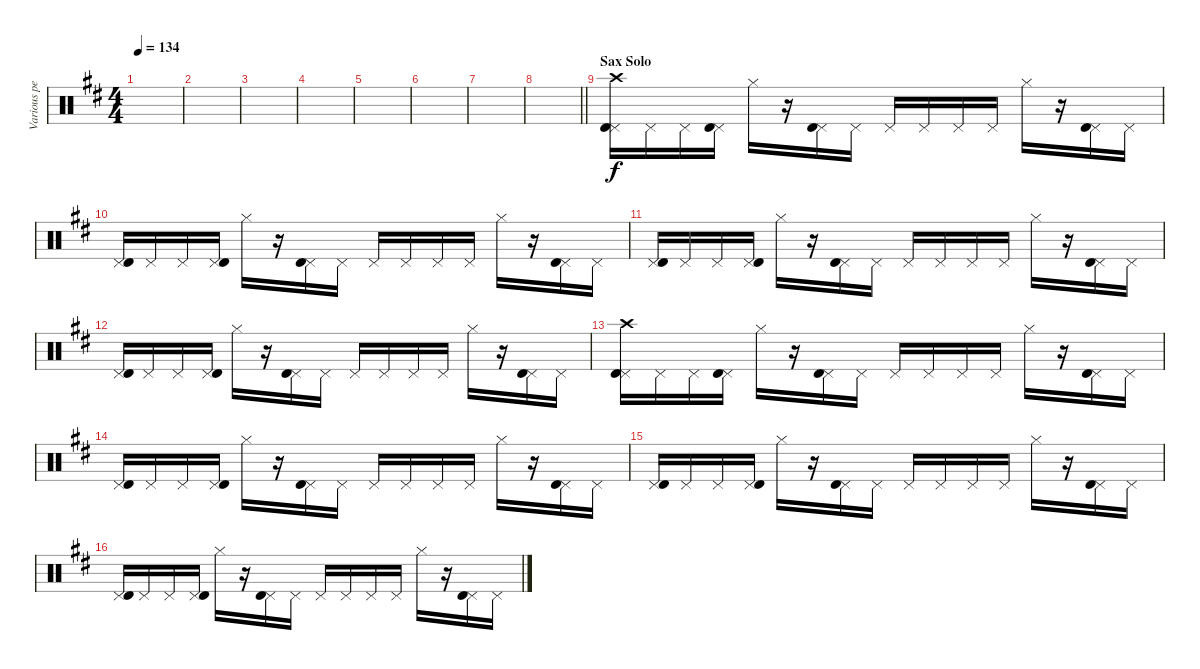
\track ("Various percussion" "Various pe") {instrument percussion}
\staff {score}
\articulation defaults
\ts (4 4)
\tempo 134
\clef neutral
\ks bminor
|
|
|
|
|
|
|
\barLineRight lightlight
|
\section ("" "Sax Solo")
("Pedal Hi-Hat (hit)" "Timbale high (hit)" "Crash high (hit)").16 "Pedal Hi-Hat (hit)".16 "Pedal Hi-Hat (hit)".16 ("Pedal Hi-Hat (hit)" "Timbale high (hit)").16 "Hi-Hat (closed)".16 r.16 ("Pedal Hi-Hat (hit)" "Timbale high (hit)").16 "Pedal Hi-Hat (hit)".16 "Pedal Hi-Hat (hit)".16 "Pedal Hi-Hat (hit)".16 "Pedal Hi-Hat (hit)".16 "Pedal Hi-Hat (hit)".16 "Hi-Hat (closed)".16 r.16 ("Pedal Hi-Hat (hit)" "Timbale high (hit)").16 "Pedal Hi-Hat (hit)".16 |
("Pedal Hi-Hat (hit)" "Timbale high (hit)").16 "Pedal Hi-Hat (hit)".16 "Pedal Hi-Hat (hit)".16 ("Pedal Hi-Hat (hit)" "Timbale high (hit)").16 "Hi-Hat (closed)".16 r.16 ("Pedal Hi-Hat (hit)" "Timbale high (hit)").16 "Pedal Hi-Hat (hit)".16 "Pedal Hi-Hat (hit)".16 "Pedal Hi-Hat (hit)".16 "Pedal Hi-Hat (hit)".16 "Pedal Hi-Hat (hit)".16 "Hi-Hat (closed)".16 r.16 ("Pedal Hi-Hat (hit)" "Timbale high (hit)").16 "Pedal Hi-Hat (hit)".16 |
("Pedal Hi-Hat (hit)" "Timbale high (hit)").16 "Pedal Hi-Hat (hit)".16 "Pedal Hi-Hat (hit)".16 ("Pedal Hi-Hat (hit)" "Timbale high (hit)").16 "Hi-Hat (closed)".16 r.16 ("Pedal Hi-Hat (hit)" "Timbale high (hit)").16 "Pedal Hi-Hat (hit)".16 "Pedal Hi-Hat (hit)".16 "Pedal Hi-Hat (hit)".16 "Pedal Hi-Hat (hit)".16 "Pedal Hi-Hat (hit)".16 "Hi-Hat (closed)".16 r.16 ("Pedal Hi-Hat (hit)" "Timbale high (hit)").16 "Pedal Hi-Hat (hit)".16 |
("Pedal Hi-Hat (hit)" "Timbale high (hit)").16 "Pedal Hi-Hat (hit)".16 "Pedal Hi-Hat (hit)".16 ("Pedal Hi-Hat (hit)" "Timbale high (hit)").16 "Hi-Hat (closed)".16 r.16 ("Pedal Hi-Hat (hit)" "Timbale high (hit)").16 "Pedal Hi-Hat (hit)".16 "Pedal Hi-Hat (hit)".16 "Pedal Hi-Hat (hit)".16 "Pedal Hi-Hat (hit)".16 "Pedal Hi-Hat (hit)".16 "Hi-Hat (closed)".16 r.16 ("Pedal Hi-Hat (hit)" "Timbale high (hit)").16 "Pedal Hi-Hat (hit)".16 |
("Pedal Hi-Hat (hit)" "Timbale high (hit)" "Crash high (hit)").16 "Pedal Hi-Hat (hit)".16 "Pedal Hi-Hat (hit)".16 ("Pedal Hi-Hat (hit)" "Timbale high (hit)").16 "Hi-Hat (closed)".16 r.16 ("Pedal Hi-Hat (hit)" "Timbale high (hit)").16 "Pedal Hi-Hat (hit)".16 "Pedal Hi-Hat (hit)".16 "Pedal Hi-Hat (hit)".16 "Pedal Hi-Hat (hit)".16 "Pedal Hi-Hat (hit)".16 "Hi-Hat (closed)".16 r.16 ("Pedal Hi-Hat (hit)" "Timbale high (hit)").16 "Pedal Hi-Hat (hit)".16 |
("Pedal Hi-Hat (hit)" "Timbale high (hit)").16 "Pedal Hi-Hat (hit)".16 "Pedal Hi-Hat (hit)".16 ("Pedal Hi-Hat (hit)" "Timbale high (hit)").16 "Hi-Hat (closed)".16 r.16 ("Pedal Hi-Hat (hit)" "Timbale high (hit)").16 "Pedal Hi-Hat (hit)".16 "Pedal Hi-Hat (hit)".16 "Pedal Hi-Hat (hit)".16 "Pedal Hi-Hat (hit)".16 "Pedal Hi-Hat (hit)".16 "Hi-Hat (closed)".16 r.16 ("Pedal Hi-Hat (hit)" "Timbale high (hit)").16 "Pedal Hi-Hat (hit)".16 |
("Pedal Hi-Hat (hit)" "Timbale high (hit)").16 "Pedal Hi-Hat (hit)".16 "Pedal Hi-Hat (hit)".16 ("Pedal Hi-Hat (hit)" "Timbale high (hit)").16 "Hi-Hat (closed)".16 r.16 ("Pedal Hi-Hat (hit)" "Timbale high (hit)").16 "Pedal Hi-Hat (hit)".16 "Pedal Hi-Hat (hit)".16 "Pedal Hi-Hat (hit)".16 "Pedal Hi-Hat (hit)".16 "Pedal Hi-Hat (hit)".16 "Hi-Hat (closed)".16 r.16 ("Pedal Hi-Hat (hit)" "Timbale high (hit)").16 "Pedal Hi-Hat (hit)".16 |
("Pedal Hi-Hat (hit)" "Timbale high (hit)").16 "Pedal Hi-Hat (hit)".16 "Pedal Hi-Hat (hit)".16 ("Pedal Hi-Hat (hit)" "Timbale high (hit)").16 "Hi-Hat (closed)".16 r.16 ("Pedal Hi-Hat (hit)" "Timbale high (hit)").16 "Pedal Hi-Hat (hit)".16 "Pedal Hi-Hat (hit)".16 "Pedal Hi-Hat (hit)".16 "Pedal Hi-Hat (hit)".16 "Pedal Hi-Hat (hit)".16 "Hi-Hat (closed)".16 r.16 ("Pedal Hi-Hat (hit)" "Timbale high (hit)").16 "Pedal Hi-Hat (hit)".16
